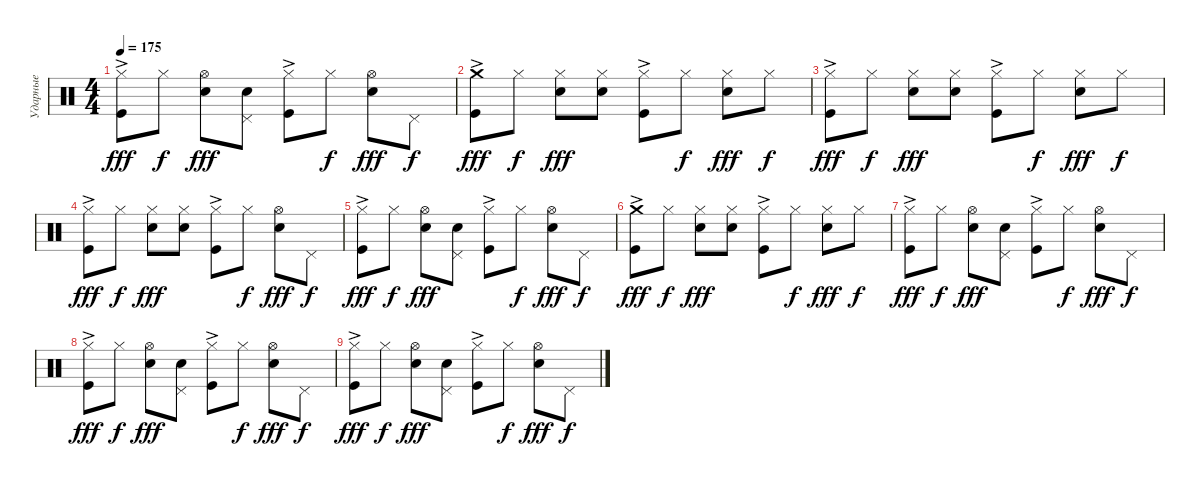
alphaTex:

\track ("Ударные" "Ударные") {instrument percussion}
\staff {score}
\articulation defaults
\ts (4 4)
\tempo 175
\clef neutral
\ks c
("Hi-Hat (closed)"{ac} "Kick (hit)").8{dy fff} "Hi-Hat (closed)".8{dy f} ("Hi-Hat (open)" "Snare (hit) 2").8{dy fff} ("Pedal Hi-Hat (hit)" "Snare (hit) 2").8 ("Hi-Hat (closed)"{ac} "Kick (hit)").8 "Hi-Hat (closed)".8{dy f} ("Hi-Hat (open)" "Snare (hit) 2").8{dy fff} "Pedal Hi-Hat (hit)".8{dy f} |
("Crash medium (hit)"{ac} "Kick (hit)").8{dy fff} "Hi-Hat (closed)".8{dy f} ("Hi-Hat (closed)" "Snare (hit) 2").8{dy fff} ("Hi-Hat (closed)" "Snare (hit) 2").8 ("Hi-Hat (closed)"{ac} "Kick (hit)").8 "Hi-Hat (closed)".8{dy f} ("Hi-Hat (closed)" "Snare (hit) 2").8{dy fff} "Hi-Hat (closed)".8{dy f} |
("Hi-Hat (closed)"{ac} "Kick (hit)").8{dy fff} "Hi-Hat (closed)".8{dy f} ("Hi-Hat (closed)" "Snare (hit) 2").8{dy fff} ("Hi-Hat (closed)" "Snare (hit) 2").8 ("Hi-Hat (closed)"{ac} "Kick (hit)").8 "Hi-Hat (closed)".8{dy f} ("Hi-Hat (closed)" "Snare (hit) 2").8{dy fff} "Hi-Hat (closed)".8{dy f} |
("Hi-Hat (closed)"{ac} "Kick (hit)").8{dy fff} "Hi-Hat (closed)".8{dy f} ("Hi-Hat (closed)" "Snare (hit) 2").8{dy fff} ("Hi-Hat (closed)" "Snare (hit) 2").8 ("Hi-Hat (closed)"{ac} "Kick (hit)").8 "Hi-Hat (closed)".8{dy f} ("Hi-Hat (open)" "Snare (hit) 2").8{dy fff} "Pedal Hi-Hat (hit)".8{dy f} |
("Hi-Hat (closed)"{ac} "Kick (hit)").8{dy fff} "Hi-Hat (closed)".8{dy f} ("Hi-Hat (open)" "Snare (hit) 2").8{dy fff} ("Pedal Hi-Hat (hit)" "Snare (hit) 2").8 ("Hi-Hat (closed)"{ac} "Kick (hit)").8 "Hi-Hat (closed)".8{dy f} ("Hi-Hat (open)" "Snare (hit) 2").8{dy fff} "Pedal Hi-Hat (hit)".8{dy f} |
("Crash medium (hit)"{ac} "Kick (hit)").8{dy fff} "Hi-Hat (closed)".8{dy f} ("Hi-Hat (closed)" "Snare (hit) 2").8{dy fff} ("Hi-Hat (closed)" "Snare (hit) 2").8 ("Hi-Hat (closed)"{ac} "Kick (hit)").8 "Hi-Hat (closed)".8{dy f} ("Hi-Hat (closed)" "Snare (hit) 2").8{dy fff} "Hi-Hat (closed)".8{dy f} |
("Hi-Hat (closed)"{ac} "Kick (hit)").8{dy fff} "Hi-Hat (closed)".8{dy f} ("Hi-Hat (open)" "Snare (hit) 2").8{dy fff} ("Pedal Hi-Hat (hit)" "Snare (hit) 2").8 ("Hi-Hat (closed)"{ac} "Kick (hit)").8 "Hi-Hat (closed)".8{dy f} ("Hi-Hat (open)" "Snare (hit) 2").8{dy fff} "Pedal Hi-Hat (hit)".8{dy f} |
("Hi-Hat (closed)"{ac} "Kick (hit)").8{dy fff} "Hi-Hat (closed)".8{dy f} ("Hi-Hat (open)" "Snare (hit) 2").8{dy fff} ("Pedal Hi-Hat (hit)" "Snare (hit) 2").8 ("Hi-Hat (closed)"{ac} "Kick (hit)").8 "Hi-Hat (closed)".8{dy f} ("Hi-Hat (open)" "Snare (hit) 2").8{dy fff} "Pedal Hi-Hat (hit)".8{dy f} |
("Hi-Hat (closed)"{ac} "Kick (hit)").8{dy fff} "Hi-Hat (closed)".8{dy f} ("Hi-Hat (open)" "Snare (hit) 2").8{dy fff} ("Pedal Hi-Hat (hit)" "Snare (hit) 2").8 ("Hi-Hat (closed)"{ac} "Kick (hit)").8 "Hi-Hat (closed)".8{dy f} ("Hi-Hat (open)" "Snare (hit) 2").8{dy fff} "Pedal Hi-Hat (hit)".8{dy f}
